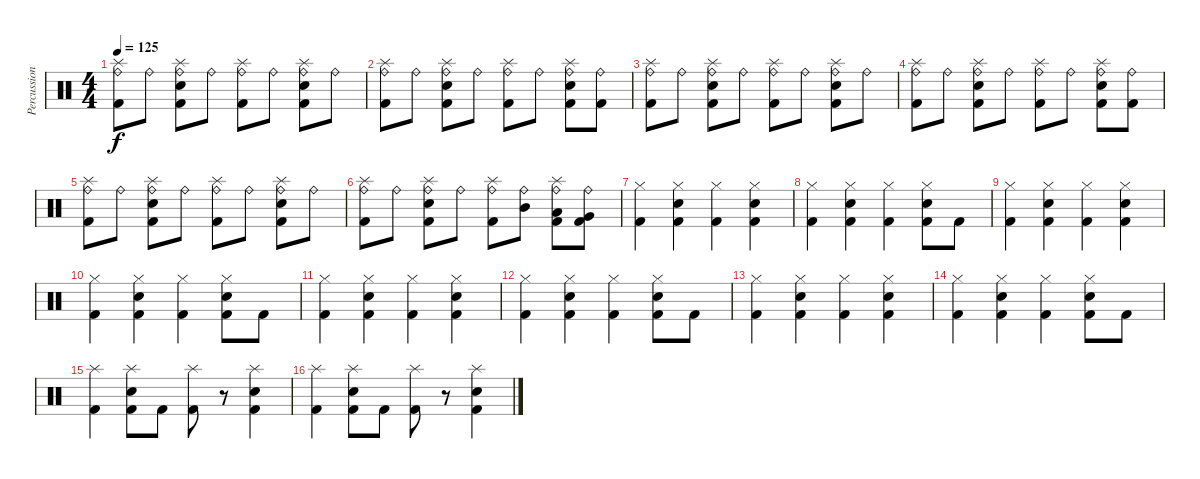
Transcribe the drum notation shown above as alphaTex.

\track ("Percussion" "Percussion") {instrument percussion}
\staff {score}
\articulation defaults
\ts (4 4)
\tempo 125
\clef neutral
\ks c
("Splash (hit)" "Ride (bell)" "Kick (hit) 2").8{dy f} "Ride (bell)".8 ("Splash (hit)" "Ride (bell)" "Snare (hit) 2" "Kick (hit) 2").8 "Ride (bell)".8 ("Splash (hit)" "Ride (bell)" "Kick (hit) 2").8 "Ride (bell)".8 ("Splash (hit)" "Ride (bell)" "Snare (hit) 2" "Kick (hit) 2").8 "Ride (bell)".8 |
("Splash (hit)" "Ride (bell)" "Kick (hit) 2").8 "Ride (bell)".8 ("Splash (hit)" "Ride (bell)" "Snare (hit) 2" "Kick (hit) 2").8 "Ride (bell)".8 ("Splash (hit)" "Ride (bell)" "Kick (hit) 2").8 "Ride (bell)".8 ("Splash (hit)" "Ride (bell)" "Snare (hit) 2" "Kick (hit) 2").8 ("Ride (bell)" "Kick (hit) 2").8 |
("Splash (hit)" "Ride (bell)" "Kick (hit) 2").8 "Ride (bell)".8 ("Splash (hit)" "Ride (bell)" "Snare (hit) 2" "Kick (hit) 2").8 "Ride (bell)".8 ("Splash (hit)" "Ride (bell)" "Kick (hit) 2").8 "Ride (bell)".8 ("Splash (hit)" "Ride (bell)" "Snare (hit) 2" "Kick (hit) 2").8 "Ride (bell)".8 |
("Splash (hit)" "Ride (bell)" "Kick (hit) 2").8 "Ride (bell)".8 ("Splash (hit)" "Ride (bell)" "Snare (hit) 2" "Kick (hit) 2").8 "Ride (bell)".8 ("Splash (hit)" "Ride (bell)" "Kick (hit) 2").8 "Ride (bell)".8 ("Splash (hit)" "Ride (bell)" "Snare (hit) 2" "Kick (hit) 2").8 ("Ride (bell)" "Kick (hit) 2").8 |
("Splash (hit)" "Ride (bell)" "Kick (hit) 2").8 "Ride (bell)".8 ("Splash (hit)" "Ride (bell)" "Snare (hit) 2" "Kick (hit) 2").8 "Ride (bell)".8 ("Splash (hit)" "Ride (bell)" "Kick (hit) 2").8 "Ride (bell)".8 ("Splash (hit)" "Ride (bell)" "Snare (hit) 2" "Kick (hit) 2").8 "Ride (bell)".8 |
("Splash (hit)" "Ride (bell)" "Kick (hit) 2").8 "Ride (bell)".8 ("Splash (hit)" "Ride (bell)" "Snare (hit) 2" "Kick (hit) 2").8 "Ride (bell)".8 ("Splash (hit)" "Ride (bell)" "Kick (hit) 2").8 ("Ride (bell)" "Mid Tom (hit)").8 ("Splash (hit)" "Ride (bell)" "Low Tom (hit)" "Kick (hit) 2").8 ("Ride (bell)" "Very Low Tom (hit)" "Kick (hit) 2").8 |
("Hi-Hat (closed)" "Kick (hit) 2").4 ("Hi-Hat (closed)" "Snare (hit) 2" "Kick (hit) 2").4 ("Hi-Hat (closed)" "Kick (hit) 2").4 ("Hi-Hat (closed)" "Snare (hit) 2" "Kick (hit) 2").4 |
("Hi-Hat (closed)" "Kick (hit) 2").4 ("Hi-Hat (closed)" "Snare (hit) 2" "Kick (hit) 2").4 ("Hi-Hat (closed)" "Kick (hit) 2").4 ("Hi-Hat (closed)" "Snare (hit) 2" "Kick (hit) 2").8 "Kick (hit) 2".8 |
("Hi-Hat (closed)" "Kick (hit) 2").4 ("Hi-Hat (closed)" "Snare (hit) 2" "Kick (hit) 2").4 ("Hi-Hat (closed)" "Kick (hit) 2").4 ("Hi-Hat (closed)" "Snare (hit) 2" "Kick (hit) 2").4 |
("Hi-Hat (closed)" "Kick (hit) 2").4 ("Hi-Hat (closed)" "Snare (hit) 2" "Kick (hit) 2").4 ("Hi-Hat (closed)" "Kick (hit) 2").4 ("Hi-Hat (closed)" "Snare (hit) 2" "Kick (hit) 2").8 "Kick (hit) 2".8 |
("Hi-Hat (closed)" "Kick (hit) 2").4 ("Hi-Hat (closed)" "Snare (hit) 2" "Kick (hit) 2").4 ("Hi-Hat (closed)" "Kick (hit) 2").4 ("Hi-Hat (closed)" "Snare (hit) 2" "Kick (hit) 2").4 |
("Hi-Hat (closed)" "Kick (hit) 2").4 ("Hi-Hat (closed)" "Snare (hit) 2" "Kick (hit) 2").4 ("Hi-Hat (closed)" "Kick (hit) 2").4 ("Hi-Hat (closed)" "Snare (hit) 2" "Kick (hit) 2").8 "Kick (hit) 2".8 |
("Hi-Hat (closed)" "Kick (hit) 2").4 ("Hi-Hat (closed)" "Snare (hit) 2" "Kick (hit) 2").4 ("Hi-Hat (closed)" "Kick (hit) 2").4 ("Hi-Hat (closed)" "Snare (hit) 2" "Kick (hit) 2").4 |
("Hi-Hat (closed)" "Kick (hit) 2").4 ("Hi-Hat (closed)" "Snare (hit) 2" "Kick (hit) 2").4 ("Hi-Hat (closed)" "Kick (hit) 2").4 ("Hi-Hat (closed)" "Snare (hit) 2" "Kick (hit) 2").8 "Kick (hit) 2".8 |
("Splash (hit)" "Kick (hit) 2").4 ("Splash (hit)" "Snare (hit) 2" "Kick (hit) 2").8 "Kick (hit) 2".8 ("Splash (hit)" "Kick (hit) 2").8 r.8 ("Splash (hit)" "Snare (hit) 2" "Kick (hit) 2").4 |
("Splash (hit)" "Kick (hit) 2").4 ("Splash (hit)" "Snare (hit) 2" "Kick (hit) 2").8 "Kick (hit) 2".8 ("Splash (hit)" "Kick (hit) 2").8 r.8 ("Splash (hit)" "Snare (hit) 2" "Kick (hit) 2").4
